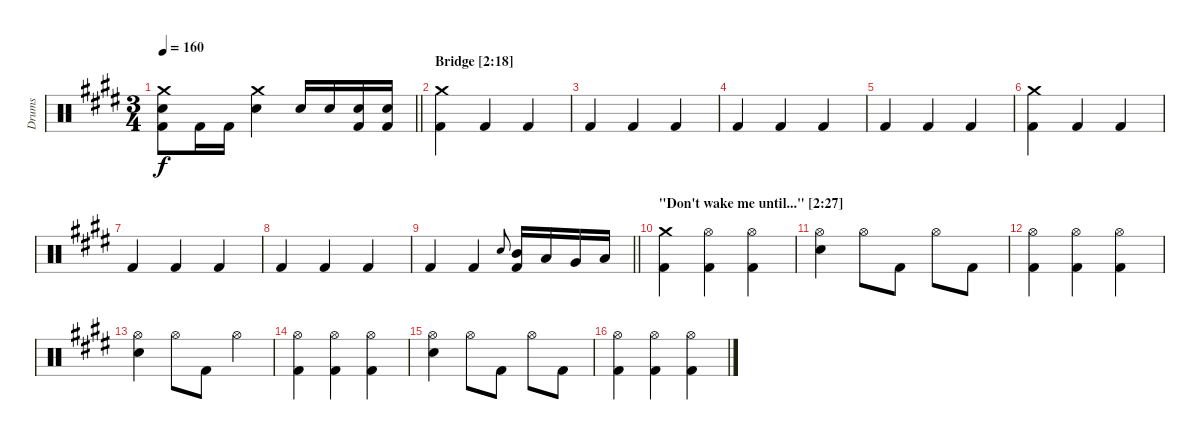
\track ("Drums" "Drums") {instrument percussion}
\staff {score}
\articulation defaults
\ts (3 4)
\tempo 160
\clef neutral
\barLineRight lightlight
\ks c#minor
("Crash medium (hit)" "Snare (hit) 2" "Kick (hit) 2").8{dy f} "Kick (hit) 2".16 "Kick (hit) 2".16 ("Crash medium (hit)" "Snare (hit) 2").4 "Snare (hit) 2".16 "Snare (hit) 2".16 ("Snare (hit) 2" "Kick (hit) 2").16 ("Snare (hit) 2" "Kick (hit) 2").16 |
\section ("" "Bridge [2:18]")
("Crash medium (hit)" "Kick (hit) 2").4 "Kick (hit) 2".4 "Kick (hit) 2".4 |
"Kick (hit) 2".4 "Kick (hit) 2".4 "Kick (hit) 2".4 |
"Kick (hit) 2".4 "Kick (hit) 2".4 "Kick (hit) 2".4 |
"Kick (hit) 2".4 "Kick (hit) 2".4 "Kick (hit) 2".4 |
("Crash medium (hit)" "Kick (hit) 2").4 "Kick (hit) 2".4 "Kick (hit) 2".4 |
"Kick (hit) 2".4 "Kick (hit) 2".4 "Kick (hit) 2".4 |
"Kick (hit) 2".4 "Kick (hit) 2".4 "Kick (hit) 2".4 |
\barLineRight lightlight "Kick (hit) 2".4 "Kick (hit) 2".4 "Snare (hit) 2".8{gr onbeat}
("Mid Tom (hit)" "Kick (hit) 2").16 "Low Tom (hit)".16 "Very Low Tom (hit)".16 "Low Floor Tom (hit)".16 |
\section ("" "\"Don't wake me until...\" [2:27]")
("Crash medium (hit)" "Kick (hit) 2").4 ("Hi-Hat (open)" "Kick (hit) 2").4 ("Hi-Hat (open)" "Kick (hit) 2").4 |
("Hi-Hat (open)" "Snare (hit) 2").4 "Hi-Hat (open)".8 "Kick (hit) 2".8 "Hi-Hat (open)".8 "Kick (hit) 2".8 |
("Hi-Hat (open)" "Kick (hit) 2").4 ("Hi-Hat (open)" "Kick (hit) 2").4 ("Hi-Hat (open)" "Kick (hit) 2").4 |
("Hi-Hat (open)" "Snare (hit) 2").4 "Hi-Hat (open)".8 "Kick (hit) 2".8 "Hi-Hat (open)".4 |
("Hi-Hat (open)" "Kick (hit) 2").4 ("Hi-Hat (open)" "Kick (hit) 2").4 ("Hi-Hat (open)" "Kick (hit) 2").4 |
("Hi-Hat (open)" "Snare (hit) 2").4 "Hi-Hat (open)".8 "Kick (hit) 2".8 "Hi-Hat (open)".8 "Kick (hit) 2".8 |
("Hi-Hat (open)" "Kick (hit) 2").4 ("Hi-Hat (open)" "Kick (hit) 2").4 ("Hi-Hat (open)" "Kick (hit) 2").4
